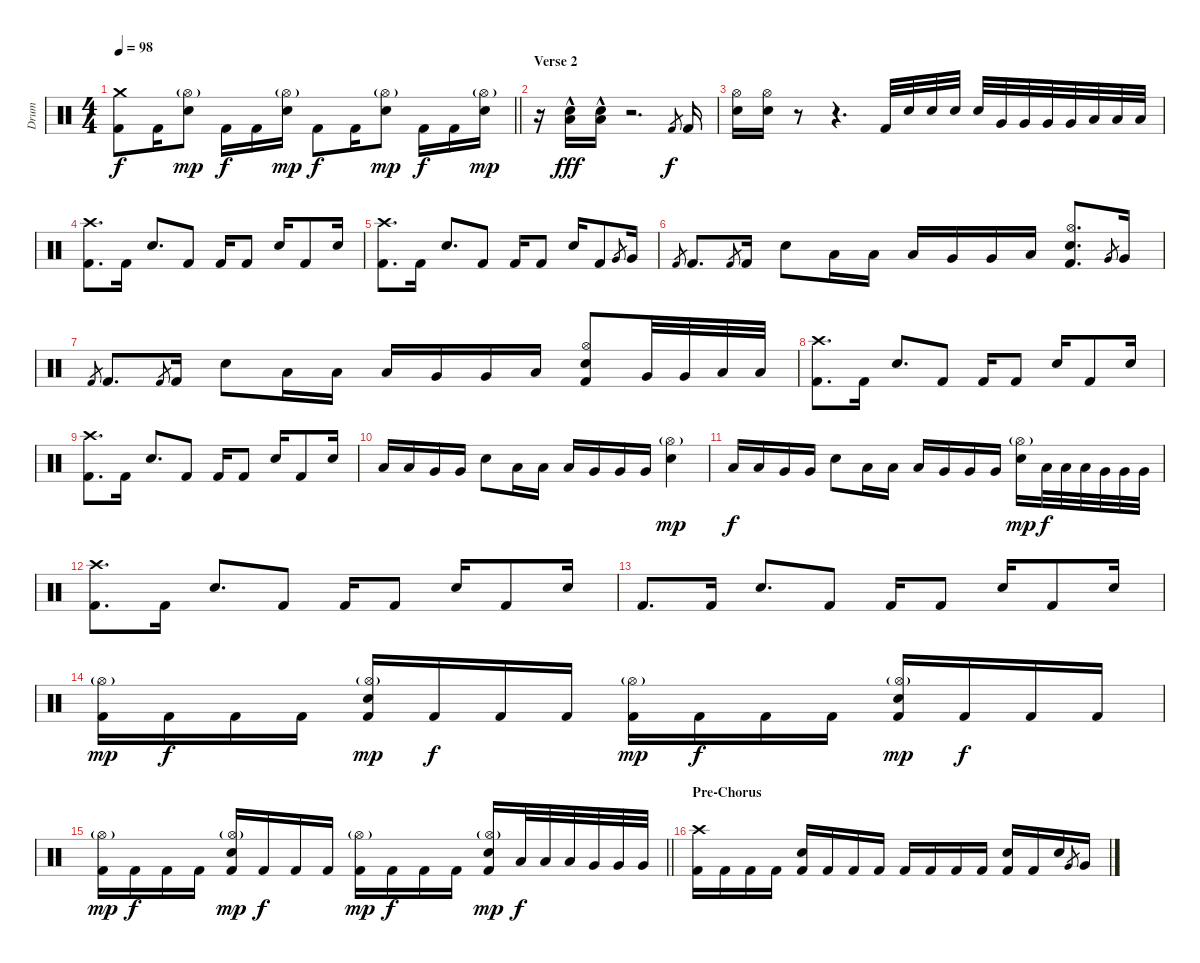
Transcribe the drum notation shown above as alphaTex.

\track ("Drum" "Drum") {instrument percussion}
\staff {score}
\articulation defaults
\ts (4 4)
\tempo 98
\clef neutral
\barLineRight lightlight
\ks c
("Crash medium (hit)" "Kick (hit) 2").8{dy f} "Kick (hit) 2".16 ("Hi-Hat (open)"{g} "Electric Snare (hit)").8{dy mp} "Kick (hit) 2".16{dy f} "Kick (hit) 2".16 ("Hi-Hat (open)"{g} "Electric Snare (hit)").16{dy mp} "Kick (hit) 2".8{dy f} "Kick (hit) 2".16 ("Hi-Hat (open)"{g} "Electric Snare (hit)").8{dy mp} "Kick (hit) 2".16{dy f} "Kick (hit) 2".16 ("Hi-Hat (open)"{g} "Electric Snare (hit)").16{dy mp} |
\section ("" "Verse 2")
r.16 ("Low Floor Tom (hit)"{hac} "Electric Snare (hit)").16{dy fff} ("Low Floor Tom (hit)"{hac} "Electric Snare (hit)").16 r.2{d} "Kick (hit) 2".8{gr dy f} "Kick (hit) 2".16 |
("Hi-Hat (open)" "Electric Snare (hit)").16 ("Hi-Hat (open)" "Electric Snare (hit)").16 r.8 r.4{d} "Kick (hit) 2".32 "Electric Snare (hit)".32 "Electric Snare (hit)".32 "Electric Snare (hit)".32 "Electric Snare (hit)".32 "Very Low Tom (hit)".32 "Very Low Tom (hit)".32 "Very Low Tom (hit)".32 "Very Low Tom (hit)".32 "Low Floor Tom (hit)".32 "Low Floor Tom (hit)".32 "Low Floor Tom (hit)".32 |
("Crash high (hit)" "Kick (hit) 2").8{d} "Kick (hit) 2".16 "Electric Snare (hit)".8{d} "Kick (hit) 2".8 "Kick (hit) 2".16 "Kick (hit) 2".8 "Electric Snare (hit)".16 "Kick (hit) 2".8 "Electric Snare (hit)".16 |
("Crash high (hit)" "Kick (hit) 2").8{d} "Kick (hit) 2".16 "Electric Snare (hit)".8{d} "Kick (hit) 2".8 "Kick (hit) 2".16 "Kick (hit) 2".8 "Electric Snare (hit)".16 "Kick (hit) 2".8 "Very Low Tom (hit)".8{gr} "Very Low Tom (hit)".16 |
"Kick (hit) 2".8{gr} "Kick (hit) 2".8{d} "Kick (hit) 2".8{gr} "Kick (hit) 2".16 "Electric Snare (hit)".8 "Low Tom (hit)".16 "Low Tom (hit)".16 "Low Tom (hit)".16 "Very Low Tom (hit)".16 "Very Low Tom (hit)".16 "Low Floor Tom (hit)".16 ("Hi-Hat (open)" "Electric Snare (hit)" "Kick (hit) 2").8{d} "Very Low Tom (hit)".8{gr} "Very Low Tom (hit)".16 |
"Kick (hit) 2".8{gr} "Kick (hit) 2".8{d} "Kick (hit) 2".8{gr} "Kick (hit) 2".16 "Electric Snare (hit)".8 "Low Tom (hit)".16 "Low Tom (hit)".16 "Low Tom (hit)".16 "Very Low Tom (hit)".16 "Very Low Tom (hit)".16 "Low Floor Tom (hit)".16 ("Hi-Hat (open)" "Electric Snare (hit)" "Kick (hit) 2").8 "Very Low Tom (hit)".32 "Very Low Tom (hit)".32 "Low Floor Tom (hit)".32 "Low Floor Tom (hit)".32 |
("Crash high (hit)" "Kick (hit) 2").8{d} "Kick (hit) 2".16 "Electric Snare (hit)".8{d} "Kick (hit) 2".8 "Kick (hit) 2".16 "Kick (hit) 2".8 "Electric Snare (hit)".16 "Kick (hit) 2".8 "Electric Snare (hit)".16 |
("Crash high (hit)" "Kick (hit) 2").8{d} "Kick (hit) 2".16 "Electric Snare (hit)".8{d} "Kick (hit) 2".8 "Kick (hit) 2".16 "Kick (hit) 2".8 "Electric Snare (hit)".16 "Kick (hit) 2".8 "Electric Snare (hit)".16 |
"Low Tom (hit)".16 "Low Tom (hit)".16 "Very Low Tom (hit)".16 "Very Low Tom (hit)".16 "Electric Snare (hit)".8 "Low Tom (hit)".16 "Low Tom (hit)".16 "Low Tom (hit)".16 "Very Low Tom (hit)".16 "Very Low Tom (hit)".16 "Very Low Tom (hit)".16 ("Hi-Hat (open)"{g} "Electric Snare (hit)").4{dy mp} |
"Low Tom (hit)".16{dy f} "Low Tom (hit)".16 "Very Low Tom (hit)".16 "Very Low Tom (hit)".16 "Electric Snare (hit)".8 "Low Tom (hit)".16 "Low Tom (hit)".16 "Low Tom (hit)".16 "Very Low Tom (hit)".16 "Very Low Tom (hit)".16 "Very Low Tom (hit)".16 ("Hi-Hat (open)"{g} "Electric Snare (hit)").16{dy mp} "Low Tom (hit)".32{dy f} "Low Tom (hit)".32 "Low Tom (hit)".32 "Very Low Tom (hit)".32 "Very Low Tom (hit)".32 "Very Low Tom (hit)".32 |
("Crash high (hit)" "Kick (hit) 2").8{d} "Kick (hit) 2".16 "Electric Snare (hit)".8{d} "Kick (hit) 2".8 "Kick (hit) 2".16 "Kick (hit) 2".8 "Electric Snare (hit)".16 "Kick (hit) 2".8 "Electric Snare (hit)".16 |
"Kick (hit) 2".8{d} "Kick (hit) 2".16 "Electric Snare (hit)".8{d} "Kick (hit) 2".8 "Kick (hit) 2".16 "Kick (hit) 2".8 "Electric Snare (hit)".16 "Kick (hit) 2".8 "Electric Snare (hit)".16 |
("Hi-Hat (open)"{g} "Kick (hit) 2").16{dy mp} "Kick (hit) 2".16{dy f} "Kick (hit) 2".16 "Kick (hit) 2".16 ("Hi-Hat (open)"{g} "Electric Snare (hit)" "Kick (hit) 2").16{dy mp} "Kick (hit) 2".16{dy f} "Kick (hit) 2".16 "Kick (hit) 2".16 ("Hi-Hat (open)"{g} "Kick (hit) 2").16{dy mp} "Kick (hit) 2".16{dy f} "Kick (hit) 2".16 "Kick (hit) 2".16 ("Hi-Hat (open)"{g} "Electric Snare (hit)" "Kick (hit) 2").16{dy mp} "Kick (hit) 2".16{dy f} "Kick (hit) 2".16 "Kick (hit) 2".16 |
\barLineRight lightlight
("Hi-Hat (open)"{g} "Kick (hit) 2").16{dy mp} "Kick (hit) 2".16{dy f} "Kick (hit) 2".16 "Kick (hit) 2".16 ("Hi-Hat (open)"{g} "Electric Snare (hit)" "Kick (hit) 2").16{dy mp} "Kick (hit) 2".16{dy f} "Kick (hit) 2".16 "Kick (hit) 2".16 ("Hi-Hat (open)"{g} "Kick (hit) 2").16{dy mp} "Kick (hit) 2".16{dy f} "Kick (hit) 2".16 "Kick (hit) 2".16 ("Hi-Hat (open)"{g} "Electric Snare (hit)" "Kick (hit) 2").16{dy mp} "Low Tom (hit)".32{dy f} "Low Tom (hit)".32 "Low Tom (hit)".32 "Very Low Tom (hit)".32 "Very Low Tom (hit)".32 "Very Low Tom (hit)".32 |
\section ("" "Pre-Chorus")
("Crash high (hit)" "Kick (hit) 2").16 "Kick (hit) 2".16 "Kick (hit) 2".16 "Kick (hit) 2".16 ("Electric Snare (hit)" "Kick (hit) 2").16 "Kick (hit) 2".16 "Kick (hit) 2".16 "Kick (hit) 2".16 "Kick (hit) 2".16 "Kick (hit) 2".16 "Kick (hit) 2".16 "Kick (hit) 2".16 ("Electric Snare (hit)" "Kick (hit) 2").16 "Kick (hit) 2".16 "Electric Snare (hit)".16 "Very Low Tom (hit)".8{gr} "Very Low Tom (hit)".16
